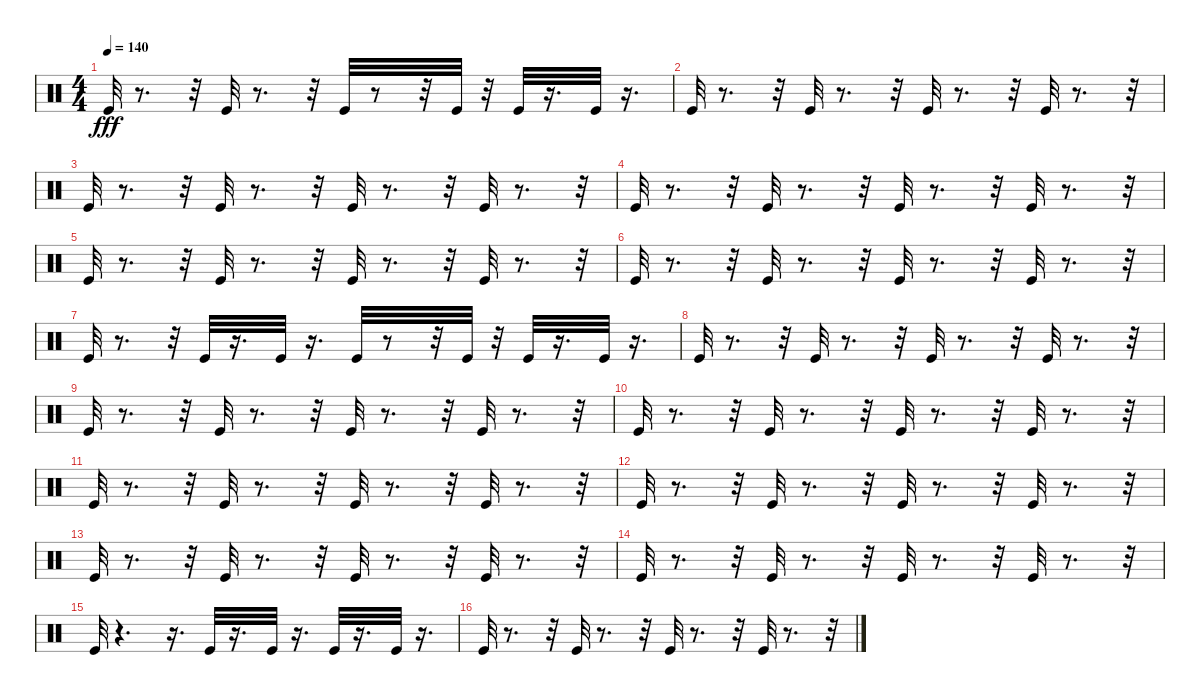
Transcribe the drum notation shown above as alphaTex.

\track "" {instrument percussion}
\staff {score}
\articulation defaults
\ts (4 4)
\tempo 140
\clef neutral
\ks c "Kick (hit)".32{dy fff}
r.8{d} r.32 "Kick (hit)".32 r.8{d} r.32 "Kick (hit)".32 r.8 r.32 "Kick (hit)".32 r.32 "Kick (hit)".32 r.16{d} "Kick (hit)".32 r.16{d} |
"Kick (hit)".32 r.8{d} r.32 "Kick (hit)".32 r.8{d} r.32 "Kick (hit)".32 r.8{d} r.32 "Kick (hit)".32 r.8{d} r.32 |
"Kick (hit)".32 r.8{d} r.32 "Kick (hit)".32 r.8{d} r.32 "Kick (hit)".32 r.8{d} r.32 "Kick (hit)".32 r.8{d} r.32 |
"Kick (hit)".32 r.8{d} r.32 "Kick (hit)".32 r.8{d} r.32 "Kick (hit)".32 r.8{d} r.32 "Kick (hit)".32 r.8{d} r.32 |
"Kick (hit)".32 r.8{d} r.32 "Kick (hit)".32 r.8{d} r.32 "Kick (hit)".32 r.8{d} r.32 "Kick (hit)".32 r.8{d} r.32 |
"Kick (hit)".32 r.8{d} r.32 "Kick (hit)".32 r.8{d} r.32 "Kick (hit)".32 r.8{d} r.32 "Kick (hit)".32 r.8{d} r.32 |
"Kick (hit)".32 r.8{d} r.32 "Kick (hit)".32 r.16{d} "Kick (hit)".32 r.16{d} "Kick (hit)".32 r.8 r.32 "Kick (hit)".32 r.32 "Kick (hit)".32 r.16{d} "Kick (hit)".32 r.16{d} |
"Kick (hit)".32 r.8{d} r.32 "Kick (hit)".32 r.8{d} r.32 "Kick (hit)".32 r.8{d} r.32 "Kick (hit)".32 r.8{d} r.32 |
"Kick (hit)".32 r.8{d} r.32 "Kick (hit)".32 r.8{d} r.32 "Kick (hit)".32 r.8{d} r.32 "Kick (hit)".32 r.8{d} r.32 |
"Kick (hit)".32 r.8{d} r.32 "Kick (hit)".32 r.8{d} r.32 "Kick (hit)".32 r.8{d} r.32 "Kick (hit)".32 r.8{d} r.32 |
"Kick (hit)".32 r.8{d} r.32 "Kick (hit)".32 r.8{d} r.32 "Kick (hit)".32 r.8{d} r.32 "Kick (hit)".32 r.8{d} r.32 |
"Kick (hit)".32 r.8{d} r.32 "Kick (hit)".32 r.8{d} r.32 "Kick (hit)".32 r.8{d} r.32 "Kick (hit)".32 r.8{d} r.32 |
"Kick (hit)".32 r.8{d} r.32 "Kick (hit)".32 r.8{d} r.32 "Kick (hit)".32 r.8{d} r.32 "Kick (hit)".32 r.8{d} r.32 |
"Kick (hit)".32 r.8{d} r.32 "Kick (hit)".32 r.8{d} r.32 "Kick (hit)".32 r.8{d} r.32 "Kick (hit)".32 r.8{d} r.32 |
"Kick (hit)".32 r.4{d} r.16{d} "Kick (hit)".32 r.16{d} "Kick (hit)".32 r.16{d} "Kick (hit)".32 r.16{d} "Kick (hit)".32 r.16{d} |
"Kick (hit)".32 r.8{d} r.32 "Kick (hit)".32 r.8{d} r.32 "Kick (hit)".32 r.8{d} r.32 "Kick (hit)".32 r.8{d} r.32
